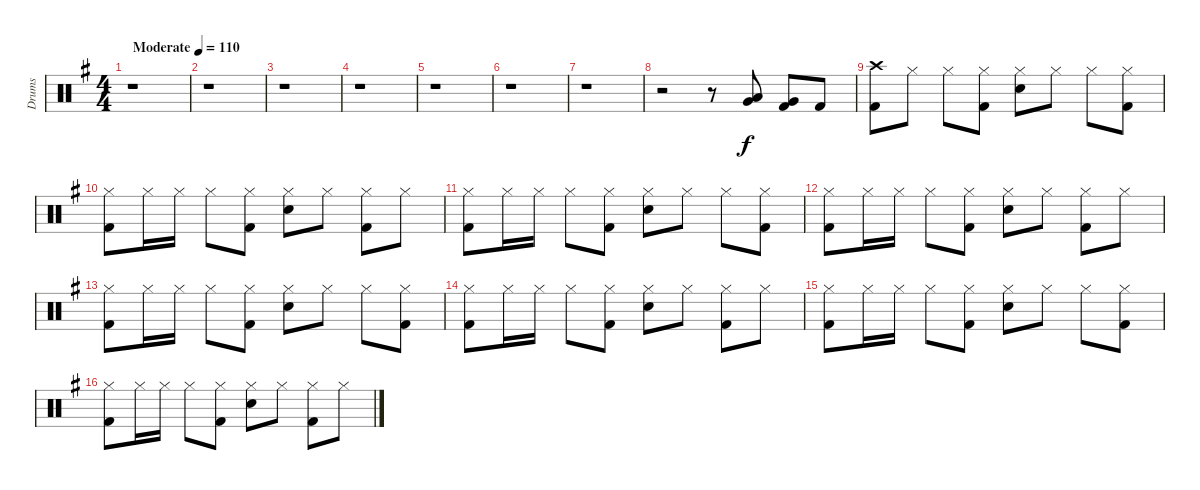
\track ("Drums" "Drums") {instrument percussion}
\staff {score}
\articulation defaults
\ts (4 4)
\tempo (110 "Moderate")
\clef neutral
\ks eminor
r.1{dy f} |
r.1 |
r.1 |
r.1 |
r.1 |
r.1 |
r.1 |
r.2 r.8 ("Low Tom (hit)" "Very Low Tom (hit)").8 ("Very Low Tom (hit)" "Kick (hit) 2").8 "Kick (hit) 2".8 |
("Crash high (hit)" "Kick (hit) 2").8 "Hi-Hat (closed)".8 "Hi-Hat (closed)".8 ("Hi-Hat (closed)" "Kick (hit) 2").8 ("Hi-Hat (closed)" "Electric Snare (hit)").8 "Hi-Hat (closed)".8 "Hi-Hat (closed)".8 ("Hi-Hat (closed)" "Kick (hit) 2").8 |
("Hi-Hat (closed)" "Kick (hit) 2").8 "Hi-Hat (closed)".16 "Hi-Hat (closed)".16 "Hi-Hat (closed)".8 ("Hi-Hat (closed)" "Kick (hit) 2").8 ("Hi-Hat (closed)" "Electric Snare (hit)").8 "Hi-Hat (closed)".8 ("Hi-Hat (closed)" "Kick (hit) 2").8 "Hi-Hat (closed)".8 |
("Hi-Hat (closed)" "Kick (hit) 2").8 "Hi-Hat (closed)".16 "Hi-Hat (closed)".16 "Hi-Hat (closed)".8 ("Hi-Hat (closed)" "Kick (hit) 2").8 ("Hi-Hat (closed)" "Electric Snare (hit)").8 "Hi-Hat (closed)".8 "Hi-Hat (closed)".8 ("Hi-Hat (closed)" "Kick (hit) 2").8 |
("Hi-Hat (closed)" "Kick (hit) 2").8 "Hi-Hat (closed)".16 "Hi-Hat (closed)".16 "Hi-Hat (closed)".8 ("Hi-Hat (closed)" "Kick (hit) 2").8 ("Hi-Hat (closed)" "Electric Snare (hit)").8 "Hi-Hat (closed)".8 ("Hi-Hat (closed)" "Kick (hit) 2").8 "Hi-Hat (closed)".8 |
("Hi-Hat (closed)" "Kick (hit) 2").8 "Hi-Hat (closed)".16 "Hi-Hat (closed)".16 "Hi-Hat (closed)".8 ("Hi-Hat (closed)" "Kick (hit) 2").8 ("Hi-Hat (closed)" "Electric Snare (hit)").8 "Hi-Hat (closed)".8 "Hi-Hat (closed)".8 ("Hi-Hat (closed)" "Kick (hit) 2").8 |
("Hi-Hat (closed)" "Kick (hit) 2").8 "Hi-Hat (closed)".16 "Hi-Hat (closed)".16 "Hi-Hat (closed)".8 ("Hi-Hat (closed)" "Kick (hit) 2").8 ("Hi-Hat (closed)" "Electric Snare (hit)").8 "Hi-Hat (closed)".8 ("Hi-Hat (closed)" "Kick (hit) 2").8 "Hi-Hat (closed)".8 |
("Hi-Hat (closed)" "Kick (hit) 2").8 "Hi-Hat (closed)".16 "Hi-Hat (closed)".16 "Hi-Hat (closed)".8 ("Hi-Hat (closed)" "Kick (hit) 2").8 ("Hi-Hat (closed)" "Electric Snare (hit)").8 "Hi-Hat (closed)".8 "Hi-Hat (closed)".8 ("Hi-Hat (closed)" "Kick (hit) 2").8 |
("Hi-Hat (closed)" "Kick (hit) 2").8 "Hi-Hat (closed)".16 "Hi-Hat (closed)".16 "Hi-Hat (closed)".8 ("Hi-Hat (closed)" "Kick (hit) 2").8 ("Hi-Hat (closed)" "Electric Snare (hit)").8 "Hi-Hat (closed)".8 ("Hi-Hat (closed)" "Kick (hit) 2").8 "Hi-Hat (closed)".8
